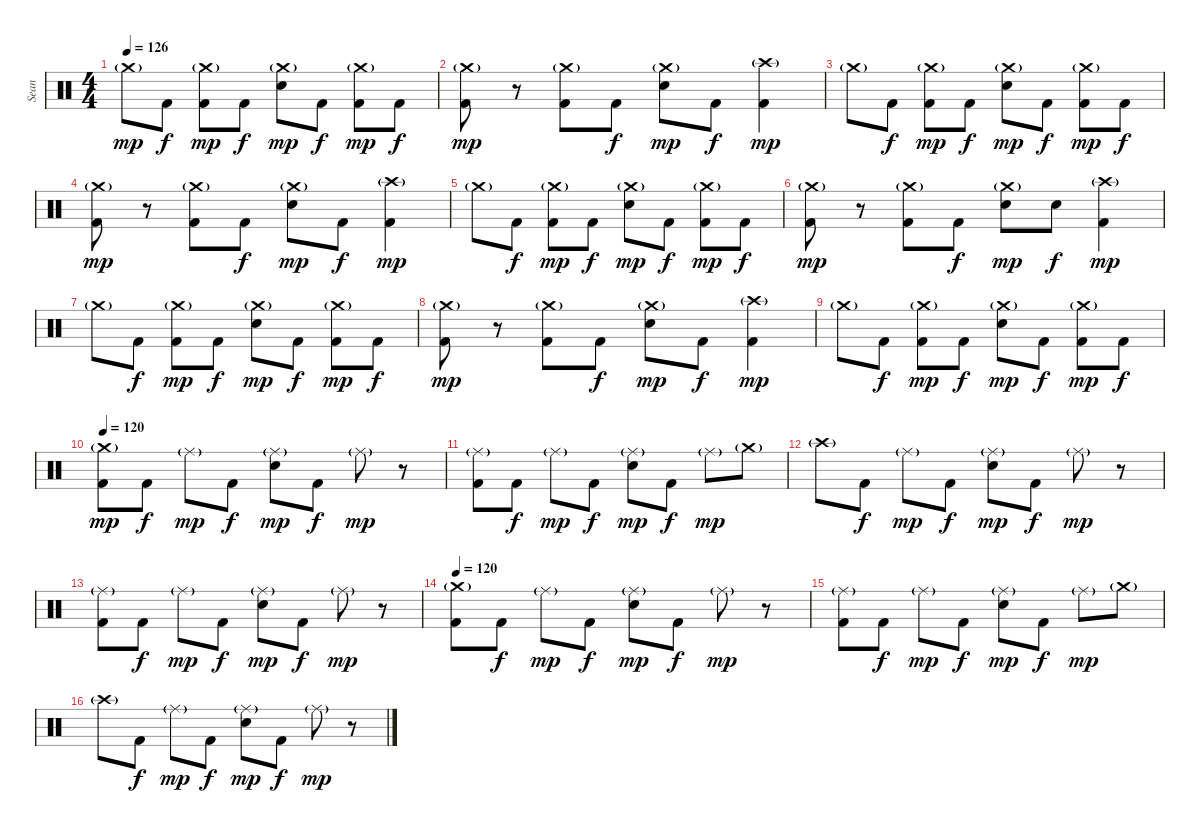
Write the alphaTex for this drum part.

\track ("Sean" "Sean") {instrument percussion}
\staff {score}
\articulation defaults
\ts (4 4)
\tempo 126
\clef neutral
\ks c "Crash medium (hit)"{g}.8{dy mp} "Kick (hit) 2".8{dy f}
("Crash medium (hit)"{g} "Kick (hit) 2").8{dy mp} "Kick (hit) 2".8{dy f} ("Crash medium (hit)"{g} "Electric Snare (hit)").8{dy mp} "Kick (hit) 2".8{dy f} ("Crash medium (hit)"{g} "Kick (hit) 2").8{dy mp} "Kick (hit) 2".8{dy f} |
("Crash medium (hit)"{g} "Kick (hit) 2").8{dy mp} r.8 ("Crash medium (hit)"{g} "Kick (hit) 2").8 "Kick (hit) 2".8{dy f} ("Crash medium (hit)"{g} "Electric Snare (hit)").8{dy mp} "Kick (hit) 2".8{dy f} ("Crash high (hit)"{g} "Kick (hit) 2").4{dy mp} |
"Crash medium (hit)"{g}.8 "Kick (hit) 2".8{dy f} ("Crash medium (hit)"{g} "Kick (hit) 2").8{dy mp} "Kick (hit) 2".8{dy f} ("Crash medium (hit)"{g} "Electric Snare (hit)").8{dy mp} "Kick (hit) 2".8{dy f} ("Crash medium (hit)"{g} "Kick (hit) 2").8{dy mp} "Kick (hit) 2".8{dy f} |
("Crash medium (hit)"{g} "Kick (hit) 2").8{dy mp} r.8 ("Crash medium (hit)"{g} "Kick (hit) 2").8 "Kick (hit) 2".8{dy f} ("Crash medium (hit)"{g} "Electric Snare (hit)").8{dy mp} "Kick (hit) 2".8{dy f} ("Crash high (hit)"{g} "Kick (hit) 2").4{dy mp} |
"Crash medium (hit)"{g}.8 "Kick (hit) 2".8{dy f} ("Crash medium (hit)"{g} "Kick (hit) 2").8{dy mp} "Kick (hit) 2".8{dy f} ("Crash medium (hit)"{g} "Electric Snare (hit)").8{dy mp} "Kick (hit) 2".8{dy f} ("Crash medium (hit)"{g} "Kick (hit) 2").8{dy mp} "Kick (hit) 2".8{dy f} |
("Crash medium (hit)"{g} "Kick (hit) 2").8{dy mp} r.8 ("Crash medium (hit)"{g} "Kick (hit) 2").8 "Kick (hit) 2".8{dy f} ("Crash medium (hit)"{g} "Electric Snare (hit)").8{dy mp} "Electric Snare (hit)".8{dy f} ("Crash high (hit)"{g} "Kick (hit) 2").4{dy mp} |
"Crash medium (hit)"{g}.8 "Kick (hit) 2".8{dy f} ("Crash medium (hit)"{g} "Kick (hit) 2").8{dy mp} "Kick (hit) 2".8{dy f} ("Crash medium (hit)"{g} "Electric Snare (hit)").8{dy mp} "Kick (hit) 2".8{dy f} ("Crash medium (hit)"{g} "Kick (hit) 2").8{dy mp} "Kick (hit) 2".8{dy f} |
("Crash medium (hit)"{g} "Kick (hit) 2").8{dy mp} r.8 ("Crash medium (hit)"{g} "Kick (hit) 2").8 "Kick (hit) 2".8{dy f} ("Crash medium (hit)"{g} "Electric Snare (hit)").8{dy mp} "Kick (hit) 2".8{dy f} ("Crash high (hit)"{g} "Kick (hit) 2").4{dy mp} |
"Crash medium (hit)"{g}.8 "Kick (hit) 2".8{dy f} ("Crash medium (hit)"{g} "Kick (hit) 2").8{dy mp} "Kick (hit) 2".8{dy f} ("Crash medium (hit)"{g} "Electric Snare (hit)").8{dy mp} "Kick (hit) 2".8{dy f} ("Crash medium (hit)"{g} "Kick (hit) 2").8{dy mp} "Kick (hit) 2".8{dy f} |
\tempo 120
("Crash medium (hit)"{g} "Kick (hit) 2").8{dy mp} "Kick (hit) 2".8{dy f} "Ride (middle)"{g}.8{dy mp} "Kick (hit) 2".8{dy f} ("Ride (middle)"{g} "Electric Snare (hit)").8{dy mp} "Kick (hit) 2".8{dy f} "Ride (middle)"{g}.8{dy mp} r.8 |
("Ride (middle)"{g} "Kick (hit) 2").8 "Kick (hit) 2".8{dy f} "Ride (middle)"{g}.8{dy mp} "Kick (hit) 2".8{dy f} ("Ride (middle)"{g} "Electric Snare (hit)").8{dy mp} "Kick (hit) 2".8{dy f} "Ride (middle)"{g}.8{dy mp} "Crash medium (hit)"{g}.8 |
"Crash high (hit)"{g}.8 "Kick (hit) 2".8{dy f} "Ride (middle)"{g}.8{dy mp} "Kick (hit) 2".8{dy f} ("Ride (middle)"{g} "Electric Snare (hit)").8{dy mp} "Kick (hit) 2".8{dy f} "Ride (middle)"{g}.8{dy mp} r.8 |
("Ride (middle)"{g} "Kick (hit) 2").8 "Kick (hit) 2".8{dy f} "Ride (middle)"{g}.8{dy mp} "Kick (hit) 2".8{dy f} ("Ride (middle)"{g} "Electric Snare (hit)").8{dy mp} "Kick (hit) 2".8{dy f} "Ride (middle)"{g}.8{dy mp} r.8 |
\tempo 120
("Crash medium (hit)"{g} "Kick (hit) 2").8 "Kick (hit) 2".8{dy f} "Ride (middle)"{g}.8{dy mp} "Kick (hit) 2".8{dy f} ("Ride (middle)"{g} "Electric Snare (hit)").8{dy mp} "Kick (hit) 2".8{dy f} "Ride (middle)"{g}.8{dy mp} r.8 |
("Ride (middle)"{g} "Kick (hit) 2").8 "Kick (hit) 2".8{dy f} "Ride (middle)"{g}.8{dy mp} "Kick (hit) 2".8{dy f} ("Ride (middle)"{g} "Electric Snare (hit)").8{dy mp} "Kick (hit) 2".8{dy f} "Ride (middle)"{g}.8{dy mp} "Crash medium (hit)"{g}.8 |
"Crash high (hit)"{g}.8 "Kick (hit) 2".8{dy f} "Ride (middle)"{g}.8{dy mp} "Kick (hit) 2".8{dy f} ("Ride (middle)"{g} "Electric Snare (hit)").8{dy mp} "Kick (hit) 2".8{dy f} "Ride (middle)"{g}.8{dy mp} r.8
